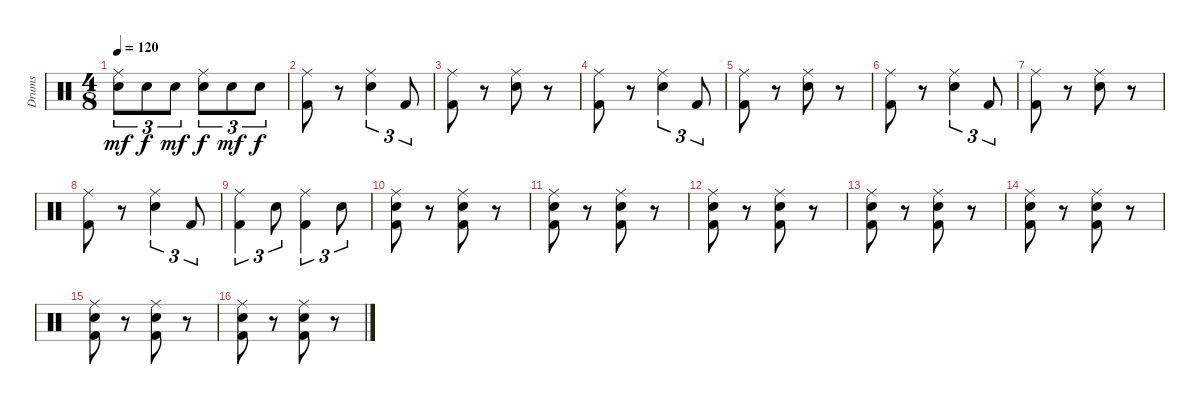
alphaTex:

\track ("Drums" "Drums") {instrument percussion}
\staff {score}
\articulation defaults
\ts (4 8)
\tempo 120
\clef neutral
\ks c
("Ride (middle)" "Electric Snare (hit)").8{tu (3 2) dy mf} "Electric Snare (hit)".8{tu (3 2) dy f} "Electric Snare (hit)".8{tu (3 2) dy mf} ("Ride (middle)" "Electric Snare (hit)").8{tu (3 2) dy f} "Electric Snare (hit)".8{tu (3 2) dy mf} "Electric Snare (hit)".8{tu (3 2) dy f} |
("Ride (middle)" "Kick (hit) 2").8 r.8 ("Ride (middle)" "Electric Snare (hit)").4{tu (3 2)} "Kick (hit) 2".8{tu (3 2)} |
("Ride (middle)" "Kick (hit) 2").8 r.8 ("Ride (middle)" "Electric Snare (hit)").8 r.8 |
("Ride (middle)" "Kick (hit) 2").8 r.8 ("Ride (middle)" "Electric Snare (hit)").4{tu (3 2)} "Kick (hit) 2".8{tu (3 2)} |
("Ride (middle)" "Kick (hit) 2").8 r.8 ("Ride (middle)" "Electric Snare (hit)").8 r.8 |
("Ride (middle)" "Kick (hit) 2").8 r.8 ("Ride (middle)" "Electric Snare (hit)").4{tu (3 2)} "Kick (hit) 2".8{tu (3 2)} |
("Ride (middle)" "Kick (hit) 2").8 r.8 ("Ride (middle)" "Electric Snare (hit)").8 r.8 |
("Ride (middle)" "Kick (hit) 2").8 r.8 ("Ride (middle)" "Electric Snare (hit)").4{tu (3 2)} "Kick (hit) 2".8{tu (3 2)} |
("Ride (middle)" "Kick (hit) 2").4{tu (3 2)} "Electric Snare (hit)".8{tu (3 2)} ("Ride (middle)" "Kick (hit) 2").4{tu (3 2)} "Electric Snare (hit)".8{tu (3 2)} |
("Ride (middle)" "Electric Snare (hit)" "Kick (hit) 2").8 r.8 ("Ride (middle)" "Electric Snare (hit)" "Kick (hit) 2").8 r.8 |
("Ride (middle)" "Electric Snare (hit)" "Kick (hit) 2").8 r.8 ("Ride (middle)" "Electric Snare (hit)" "Kick (hit) 2").8 r.8 |
("Ride (middle)" "Electric Snare (hit)" "Kick (hit) 2").8 r.8 ("Ride (middle)" "Electric Snare (hit)" "Kick (hit) 2").8 r.8 |
("Ride (middle)" "Electric Snare (hit)" "Kick (hit) 2").8 r.8 ("Ride (middle)" "Electric Snare (hit)" "Kick (hit) 2").8 r.8 |
("Ride (middle)" "Electric Snare (hit)" "Kick (hit) 2").8 r.8 ("Ride (middle)" "Electric Snare (hit)" "Kick (hit) 2").8 r.8 |
("Ride (middle)" "Electric Snare (hit)" "Kick (hit) 2").8 r.8 ("Ride (middle)" "Electric Snare (hit)" "Kick (hit) 2").8 r.8 |
("Ride (middle)" "Electric Snare (hit)" "Kick (hit) 2").8 r.8 ("Ride (middle)" "Electric Snare (hit)" "Kick (hit) 2").8 r.8
